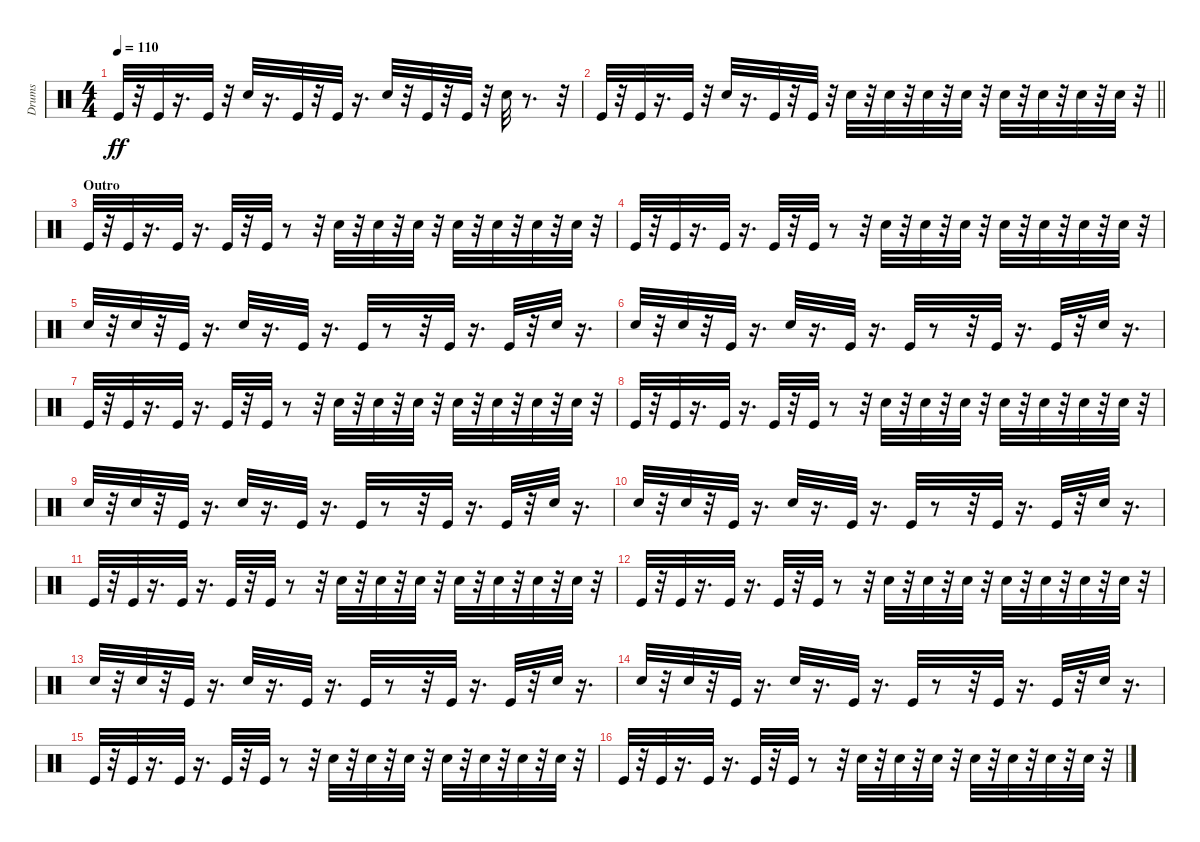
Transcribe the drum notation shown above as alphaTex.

\track ("Drums" "Drums") {instrument percussion}
\staff {score}
\articulation defaults
\ts (4 4)
\tempo 110
\clef neutral
\ks c "Kick (hit)".32{dy ff}
r.32 "Kick (hit)".32 r.16{d} "Kick (hit)".32 r.32 "Snare (hit) 2".32 r.16{d} "Kick (hit)".32 r.32 "Kick (hit)".32 r.16{d} "Snare (hit) 2".32 r.32 "Kick (hit)".32 r.32 "Kick (hit)".32 r.32 "Snare (hit) 2".32 r.8{d} r.32 |
\barLineRight lightlight "Kick (hit)".32
r.32 "Kick (hit)".32 r.16{d} "Kick (hit)".32 r.32 "Snare (hit) 2".32 r.16{d} "Kick (hit)".32 r.32 "Kick (hit)".32 r.32 "Snare (hit) 2".32 r.32 "Snare (hit) 2".32 r.32 "Snare (hit) 2".32 r.32 "Snare (hit) 2".32 r.32 "Snare (hit) 2".32 r.32 "Snare (hit) 2".32 r.32 "Snare (hit) 2".32 r.32 "Snare (hit) 2".32 r.32 |
\section ("" "Outro")
"Kick (hit)".32 r.32 "Kick (hit)".32 r.16{d} "Kick (hit)".32 r.16{d} "Kick (hit)".32 r.32 "Kick (hit)".32 r.8 r.32 "Snare (hit) 2".32 r.32 "Snare (hit) 2".32 r.32 "Snare (hit) 2".32 r.32 "Snare (hit) 2".32 r.32 "Snare (hit) 2".32 r.32 "Snare (hit) 2".32 r.32 "Snare (hit) 2".32 r.32 |
"Kick (hit)".32 r.32 "Kick (hit)".32 r.16{d} "Kick (hit)".32 r.16{d} "Kick (hit)".32 r.32 "Kick (hit)".32 r.8 r.32 "Snare (hit) 2".32 r.32 "Snare (hit) 2".32 r.32 "Snare (hit) 2".32 r.32 "Snare (hit) 2".32 r.32 "Snare (hit) 2".32 r.32 "Snare (hit) 2".32 r.32 "Snare (hit) 2".32 r.32 |
"Snare (hit) 2".32 r.32 "Snare (hit) 2".32 r.32 "Kick (hit)".32 r.16{d} "Snare (hit) 2".32 r.16{d} "Kick (hit)".32 r.16{d} "Kick (hit)".32 r.8 r.32 "Kick (hit)".32 r.16{d} "Kick (hit)".32 r.32 "Snare (hit) 2".32 r.16{d} |
"Snare (hit) 2".32 r.32 "Snare (hit) 2".32 r.32 "Kick (hit)".32 r.16{d} "Snare (hit) 2".32 r.16{d} "Kick (hit)".32 r.16{d} "Kick (hit)".32 r.8 r.32 "Kick (hit)".32 r.16{d} "Kick (hit)".32 r.32 "Snare (hit) 2".32 r.16{d} |
"Kick (hit)".32 r.32 "Kick (hit)".32 r.16{d} "Kick (hit)".32 r.16{d} "Kick (hit)".32 r.32 "Kick (hit)".32 r.8 r.32 "Snare (hit) 2".32 r.32 "Snare (hit) 2".32 r.32 "Snare (hit) 2".32 r.32 "Snare (hit) 2".32 r.32 "Snare (hit) 2".32 r.32 "Snare (hit) 2".32 r.32 "Snare (hit) 2".32 r.32 |
"Kick (hit)".32 r.32 "Kick (hit)".32 r.16{d} "Kick (hit)".32 r.16{d} "Kick (hit)".32 r.32 "Kick (hit)".32 r.8 r.32 "Snare (hit) 2".32 r.32 "Snare (hit) 2".32 r.32 "Snare (hit) 2".32 r.32 "Snare (hit) 2".32 r.32 "Snare (hit) 2".32 r.32 "Snare (hit) 2".32 r.32 "Snare (hit) 2".32 r.32 |
"Snare (hit) 2".32 r.32 "Snare (hit) 2".32 r.32 "Kick (hit)".32 r.16{d} "Snare (hit) 2".32 r.16{d} "Kick (hit)".32 r.16{d} "Kick (hit)".32 r.8 r.32 "Kick (hit)".32 r.16{d} "Kick (hit)".32 r.32 "Snare (hit) 2".32 r.16{d} |
"Snare (hit) 2".32 r.32 "Snare (hit) 2".32 r.32 "Kick (hit)".32 r.16{d} "Snare (hit) 2".32 r.16{d} "Kick (hit)".32 r.16{d} "Kick (hit)".32 r.8 r.32 "Kick (hit)".32 r.16{d} "Kick (hit)".32 r.32 "Snare (hit) 2".32 r.16{d} |
"Kick (hit)".32 r.32 "Kick (hit)".32 r.16{d} "Kick (hit)".32 r.16{d} "Kick (hit)".32 r.32 "Kick (hit)".32 r.8 r.32 "Snare (hit) 2".32 r.32 "Snare (hit) 2".32 r.32 "Snare (hit) 2".32 r.32 "Snare (hit) 2".32 r.32 "Snare (hit) 2".32 r.32 "Snare (hit) 2".32 r.32 "Snare (hit) 2".32 r.32 |
"Kick (hit)".32 r.32 "Kick (hit)".32 r.16{d} "Kick (hit)".32 r.16{d} "Kick (hit)".32 r.32 "Kick (hit)".32 r.8 r.32 "Snare (hit) 2".32 r.32 "Snare (hit) 2".32 r.32 "Snare (hit) 2".32 r.32 "Snare (hit) 2".32 r.32 "Snare (hit) 2".32 r.32 "Snare (hit) 2".32 r.32 "Snare (hit) 2".32 r.32 |
"Snare (hit) 2".32 r.32 "Snare (hit) 2".32 r.32 "Kick (hit)".32 r.16{d} "Snare (hit) 2".32 r.16{d} "Kick (hit)".32 r.16{d} "Kick (hit)".32 r.8 r.32 "Kick (hit)".32 r.16{d} "Kick (hit)".32 r.32 "Snare (hit) 2".32 r.16{d} |
"Snare (hit) 2".32 r.32 "Snare (hit) 2".32 r.32 "Kick (hit)".32 r.16{d} "Snare (hit) 2".32 r.16{d} "Kick (hit)".32 r.16{d} "Kick (hit)".32 r.8 r.32 "Kick (hit)".32 r.16{d} "Kick (hit)".32 r.32 "Snare (hit) 2".32 r.16{d} |
"Kick (hit)".32 r.32 "Kick (hit)".32 r.16{d} "Kick (hit)".32 r.16{d} "Kick (hit)".32 r.32 "Kick (hit)".32 r.8 r.32 "Snare (hit) 2".32 r.32 "Snare (hit) 2".32 r.32 "Snare (hit) 2".32 r.32 "Snare (hit) 2".32 r.32 "Snare (hit) 2".32 r.32 "Snare (hit) 2".32 r.32 "Snare (hit) 2".32 r.32 |
"Kick (hit)".32 r.32 "Kick (hit)".32 r.16{d} "Kick (hit)".32 r.16{d} "Kick (hit)".32 r.32 "Kick (hit)".32 r.8 r.32 "Snare (hit) 2".32 r.32 "Snare (hit) 2".32 r.32 "Snare (hit) 2".32 r.32 "Snare (hit) 2".32 r.32 "Snare (hit) 2".32 r.32 "Snare (hit) 2".32 r.32 "Snare (hit) 2".32 r.32
